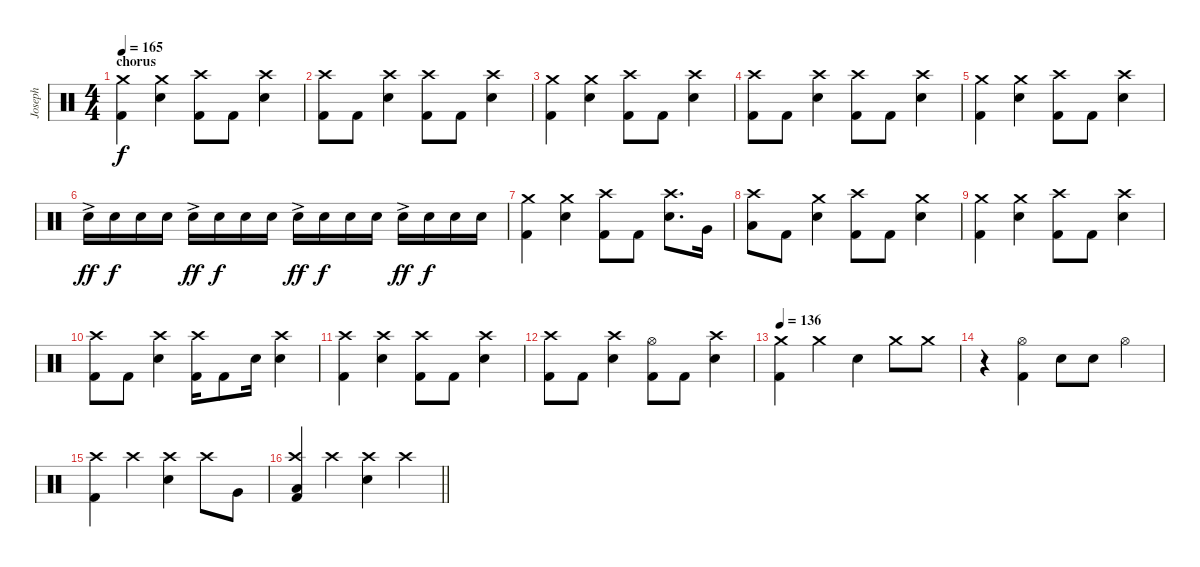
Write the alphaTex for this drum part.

\track ("Joseph" "Joseph") {instrument percussion}
\staff {score}
\articulation defaults
\ts (4 4)
\section ("" "chorus")
\tempo 165
\clef neutral
\ks c
("Crash medium (hit)" "Kick (hit) 2").4{dy f volume 13} ("Crash medium (hit)" "Electric Snare (hit)").4 ("Crash high (hit)" "Kick (hit) 2").8 "Kick (hit) 2".8 ("Crash high (hit)" "Electric Snare (hit)").4 |
("Crash high (hit)" "Kick (hit) 2").8 "Kick (hit) 2".8 ("Crash high (hit)" "Electric Snare (hit)").4 ("Crash high (hit)" "Kick (hit) 2").8 "Kick (hit) 2".8 ("Crash high (hit)" "Electric Snare (hit)").4 |
("Crash medium (hit)" "Kick (hit) 2").4 ("Crash medium (hit)" "Electric Snare (hit)").4 ("Crash high (hit)" "Kick (hit) 2").8 "Kick (hit) 2".8 ("Crash high (hit)" "Electric Snare (hit)").4 |
("Crash high (hit)" "Kick (hit) 2").8 "Kick (hit) 2".8 ("Crash high (hit)" "Electric Snare (hit)").4 ("Crash high (hit)" "Kick (hit) 2").8 "Kick (hit) 2".8 ("Crash high (hit)" "Electric Snare (hit)").4 |
("Crash medium (hit)" "Kick (hit) 2").4 ("Crash medium (hit)" "Electric Snare (hit)").4 ("Crash high (hit)" "Kick (hit) 2").8 "Kick (hit) 2".8 ("Crash high (hit)" "Electric Snare (hit)").4 |
"Electric Snare (hit)"{ac}.16{dy ff} "Electric Snare (hit)".16{dy f} "Electric Snare (hit)".16 "Electric Snare (hit)".16 "Electric Snare (hit)"{ac}.16{dy ff} "Electric Snare (hit)".16{dy f} "Electric Snare (hit)".16 "Electric Snare (hit)".16 "Electric Snare (hit)"{ac}.16{dy ff} "Electric Snare (hit)".16{dy f} "Electric Snare (hit)".16 "Electric Snare (hit)".16 "Electric Snare (hit)"{ac}.16{dy ff} "Electric Snare (hit)".16{dy f} "Electric Snare (hit)".16 "Electric Snare (hit)".16 |
("Crash medium (hit)" "Kick (hit) 2").4 ("Crash medium (hit)" "Electric Snare (hit)").4 ("Crash high (hit)" "Kick (hit) 2").8 "Kick (hit) 2".8 ("Crash high (hit)" "Electric Snare (hit)").8{d} "Very Low Tom (hit)".16 |
("Crash high (hit)" "Low Tom (hit)").8 "Kick (hit) 2".8 ("Crash medium (hit)" "Electric Snare (hit)").4 ("Crash high (hit)" "Kick (hit) 2").8 "Kick (hit) 2".8 ("Crash medium (hit)" "Electric Snare (hit)").4 |
("Crash medium (hit)" "Kick (hit) 2").4 ("Crash medium (hit)" "Electric Snare (hit)").4 ("Crash high (hit)" "Kick (hit) 2").8 "Kick (hit) 2".8 ("Crash high (hit)" "Electric Snare (hit)").4 |
("Crash high (hit)" "Kick (hit) 2").8 "Kick (hit) 2".8 ("Crash high (hit)" "Electric Snare (hit)").4 ("Crash high (hit)" "Kick (hit) 2").16 "Kick (hit) 2".8 "Electric Snare (hit)".16 ("Crash high (hit)" "Electric Snare (hit)").4 |
("Crash high (hit)" "Kick (hit) 2").4 ("Crash high (hit)" "Electric Snare (hit)").4 ("Crash high (hit)" "Kick (hit) 2").8 "Kick (hit) 2".8 ("Crash high (hit)" "Electric Snare (hit)").4 |
("Crash high (hit)" "Kick (hit) 2").8 "Kick (hit) 2".8 ("Crash high (hit)" "Electric Snare (hit)").4 ("Hi-Hat (open)" "Kick (hit) 2").8 "Kick (hit) 2".8 ("Crash high (hit)" "Electric Snare (hit)").4 |
\tempo 136
("Crash medium (hit)" "Kick (hit) 2").4 "Crash medium (hit)".4 "Electric Snare (hit)".4 "Crash medium (hit)".8 "Crash medium (hit)".8 |
r.4 ("Kick (hit) 2" "Hi-Hat (open)").4 "Electric Snare (hit)".8 "Electric Snare (hit)".8 "Hi-Hat (open)".4 |
("Crash high (hit)" "Kick (hit) 2").4 "Crash high (hit)".4 ("Crash high (hit)" "Electric Snare (hit)").4 "Crash high (hit)".8 "Very Low Tom (hit)".8 |
\barLineRight lightlight
("Crash high (hit)" "Kick (hit) 2" "Low Tom (hit)").4 "Crash high (hit)".4 ("Crash high (hit)" "Electric Snare (hit)").4 "Crash high (hit)".4
